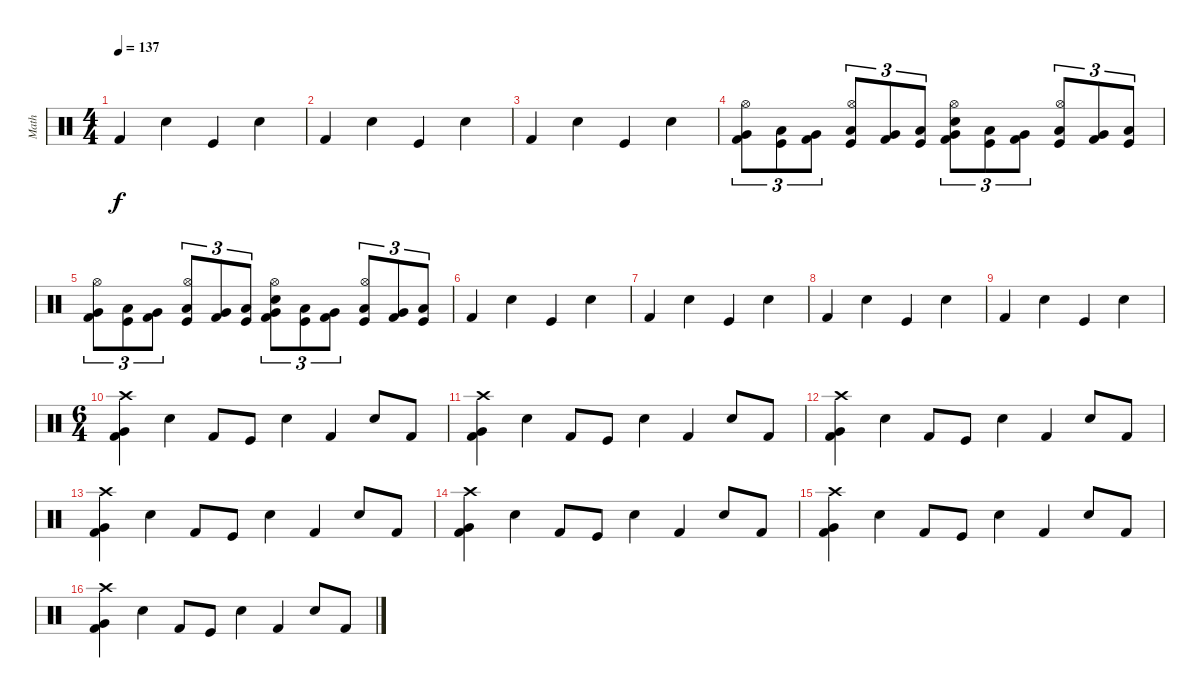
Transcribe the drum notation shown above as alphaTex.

\track ("Math" "Math") {instrument percussion}
\staff {score}
\articulation defaults
\ts (4 4)
\tempo 137
\clef neutral
\ks c "Kick (hit) 2".4{dy f} "Snare (hit) 2".4 "Kick (hit)".4 "Snare (hit) 2".4
|
"Kick (hit) 2".4 "Snare (hit) 2".4 "Kick (hit)".4 "Snare (hit) 2".4 |
"Kick (hit) 2".4 "Snare (hit) 2".4 "Kick (hit)".4 "Snare (hit) 2".4 |
("Kick (hit) 2" "Very Low Tom (hit)" "Hi-Hat (open)").8{tu (3 2)} ("Kick (hit)" "Low Tom (hit)").8{tu (3 2)} ("Kick (hit) 2" "Very Low Tom (hit)").8{tu (3 2)} ("Kick (hit)" "Low Tom (hit)" "Hi-Hat (open)").8{tu (3 2)} ("Kick (hit) 2" "Very Low Tom (hit)").8{tu (3 2)} ("Kick (hit)" "Low Tom (hit)").8{tu (3 2)} ("Kick (hit) 2" "Very Low Tom (hit)" "Snare (hit) 2" "Hi-Hat (open)").8{tu (3 2)} ("Kick (hit)" "Low Tom (hit)").8{tu (3 2)} ("Kick (hit) 2" "Very Low Tom (hit)").8{tu (3 2)} ("Kick (hit)" "Low Tom (hit)" "Hi-Hat (open)").8{tu (3 2)} ("Kick (hit) 2" "Very Low Tom (hit)").8{tu (3 2)} ("Kick (hit)" "Low Tom (hit)").8{tu (3 2)} |
("Kick (hit) 2" "Very Low Tom (hit)" "Hi-Hat (open)").8{tu (3 2)} ("Kick (hit)" "Low Tom (hit)").8{tu (3 2)} ("Kick (hit) 2" "Very Low Tom (hit)").8{tu (3 2)} ("Kick (hit)" "Low Tom (hit)" "Hi-Hat (open)").8{tu (3 2)} ("Kick (hit) 2" "Very Low Tom (hit)").8{tu (3 2)} ("Kick (hit)" "Low Tom (hit)").8{tu (3 2)} ("Kick (hit) 2" "Very Low Tom (hit)" "Snare (hit) 2" "Hi-Hat (open)").8{tu (3 2)} ("Kick (hit)" "Low Tom (hit)").8{tu (3 2)} ("Kick (hit) 2" "Very Low Tom (hit)").8{tu (3 2)} ("Kick (hit)" "Low Tom (hit)" "Hi-Hat (open)").8{tu (3 2)} ("Kick (hit) 2" "Very Low Tom (hit)").8{tu (3 2)} ("Kick (hit)" "Low Tom (hit)").8{tu (3 2)} |
"Kick (hit) 2".4 "Snare (hit) 2".4 "Kick (hit)".4 "Snare (hit) 2".4 |
"Kick (hit) 2".4 "Snare (hit) 2".4 "Kick (hit)".4 "Snare (hit) 2".4 |
"Kick (hit) 2".4 "Snare (hit) 2".4 "Kick (hit)".4 "Snare (hit) 2".4 |
"Kick (hit) 2".4 "Snare (hit) 2".4 "Kick (hit)".4 "Snare (hit) 2".4 |
\ts (6 4)
("Crash high (hit)" "Kick (hit) 2" "Very Low Tom (hit)").4 "Snare (hit) 2".4 "Kick (hit) 2".8 "Kick (hit)".8 "Snare (hit) 2".4 "Kick (hit) 2".4 "Snare (hit) 2".8 "Kick (hit) 2".8 |
("Crash high (hit)" "Kick (hit) 2" "Very Low Tom (hit)").4 "Snare (hit) 2".4 "Kick (hit) 2".8 "Kick (hit)".8 "Snare (hit) 2".4 "Kick (hit) 2".4 "Snare (hit) 2".8 "Kick (hit) 2".8 |
("Crash high (hit)" "Kick (hit) 2" "Very Low Tom (hit)").4 "Snare (hit) 2".4 "Kick (hit) 2".8 "Kick (hit)".8 "Snare (hit) 2".4 "Kick (hit) 2".4 "Snare (hit) 2".8 "Kick (hit) 2".8 |
("Crash high (hit)" "Kick (hit) 2" "Very Low Tom (hit)").4 "Snare (hit) 2".4 "Kick (hit) 2".8 "Kick (hit)".8 "Snare (hit) 2".4 "Kick (hit) 2".4 "Snare (hit) 2".8 "Kick (hit) 2".8 |
("Crash high (hit)" "Kick (hit) 2" "Very Low Tom (hit)").4 "Snare (hit) 2".4 "Kick (hit) 2".8 "Kick (hit)".8 "Snare (hit) 2".4 "Kick (hit) 2".4 "Snare (hit) 2".8 "Kick (hit) 2".8 |
("Crash high (hit)" "Kick (hit) 2" "Very Low Tom (hit)").4 "Snare (hit) 2".4 "Kick (hit) 2".8 "Kick (hit)".8 "Snare (hit) 2".4 "Kick (hit) 2".4 "Snare (hit) 2".8 "Kick (hit) 2".8 |
("Crash high (hit)" "Kick (hit) 2" "Very Low Tom (hit)").4 "Snare (hit) 2".4 "Kick (hit) 2".8 "Kick (hit)".8 "Snare (hit) 2".4 "Kick (hit) 2".4 "Snare (hit) 2".8 "Kick (hit) 2".8
